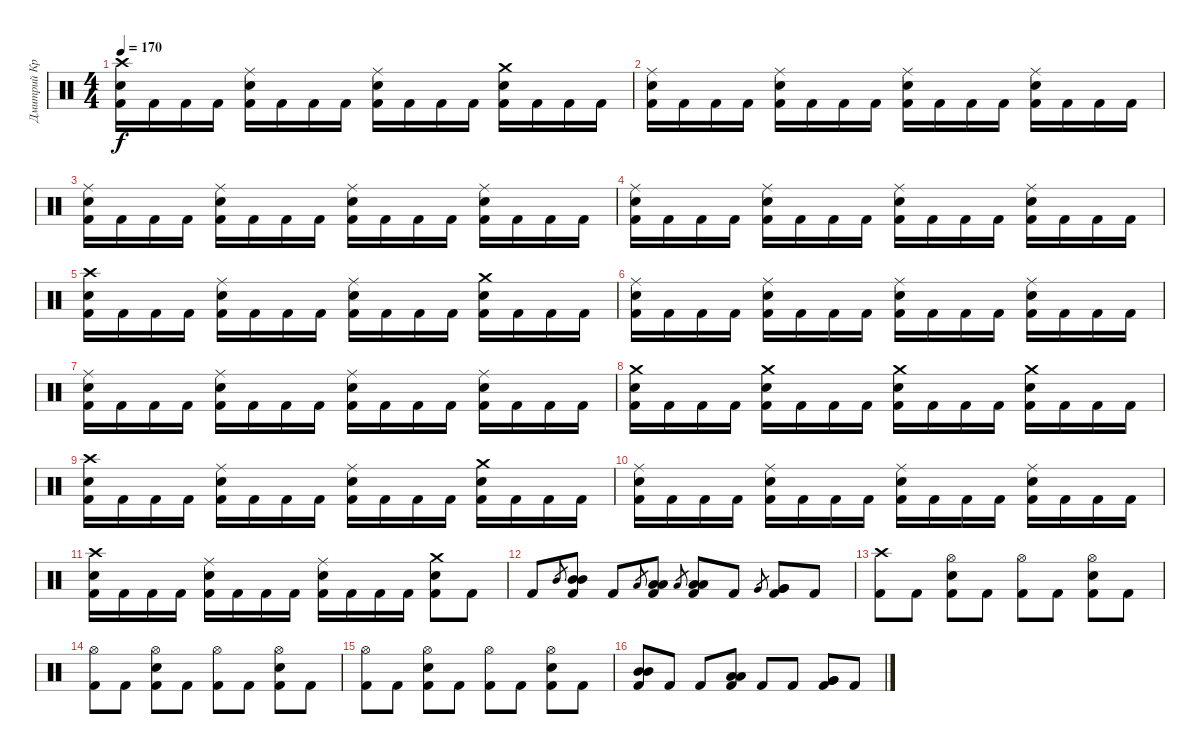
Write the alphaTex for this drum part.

\track ("Дмитрий Кривенков" "Дмитрий Кр") {instrument percussion}
\staff {score}
\articulation defaults
\ts (4 4)
\tempo 170
\clef neutral
\ks c
("Crash high (hit)" "Electric Snare (hit)" "Kick (hit) 2").16{dy f} "Kick (hit) 2".16 "Kick (hit) 2".16 "Kick (hit) 2".16 ("Ride (middle)" "Electric Snare (hit)" "Kick (hit) 2").16 "Kick (hit) 2".16 "Kick (hit) 2".16 "Kick (hit) 2".16 ("Ride (middle)" "Electric Snare (hit)" "Kick (hit) 2").16 "Kick (hit) 2".16 "Kick (hit) 2".16 "Kick (hit) 2".16 ("Crash medium (hit)" "Electric Snare (hit)" "Kick (hit) 2").16 "Kick (hit) 2".16 "Kick (hit) 2".16 "Kick (hit) 2".16 |
("Ride (middle)" "Electric Snare (hit)" "Kick (hit) 2").16 "Kick (hit) 2".16 "Kick (hit) 2".16 "Kick (hit) 2".16 ("Ride (middle)" "Electric Snare (hit)" "Kick (hit) 2").16 "Kick (hit) 2".16 "Kick (hit) 2".16 "Kick (hit) 2".16 ("Ride (middle)" "Electric Snare (hit)" "Kick (hit) 2").16 "Kick (hit) 2".16 "Kick (hit) 2".16 "Kick (hit) 2".16 ("Ride (middle)" "Electric Snare (hit)" "Kick (hit) 2").16 "Kick (hit) 2".16 "Kick (hit) 2".16 "Kick (hit) 2".16 |
("Ride (middle)" "Electric Snare (hit)" "Kick (hit) 2").16 "Kick (hit) 2".16 "Kick (hit) 2".16 "Kick (hit) 2".16 ("Ride (middle)" "Electric Snare (hit)" "Kick (hit) 2").16 "Kick (hit) 2".16 "Kick (hit) 2".16 "Kick (hit) 2".16 ("Ride (middle)" "Electric Snare (hit)" "Kick (hit) 2").16 "Kick (hit) 2".16 "Kick (hit) 2".16 "Kick (hit) 2".16 ("Ride (middle)" "Electric Snare (hit)" "Kick (hit) 2").16 "Kick (hit) 2".16 "Kick (hit) 2".16 "Kick (hit) 2".16 |
("Ride (middle)" "Electric Snare (hit)" "Kick (hit) 2").16 "Kick (hit) 2".16 "Kick (hit) 2".16 "Kick (hit) 2".16 ("Ride (middle)" "Electric Snare (hit)" "Kick (hit) 2").16 "Kick (hit) 2".16 "Kick (hit) 2".16 "Kick (hit) 2".16 ("Ride (middle)" "Electric Snare (hit)" "Kick (hit) 2").16 "Kick (hit) 2".16 "Kick (hit) 2".16 "Kick (hit) 2".16 ("Ride (middle)" "Electric Snare (hit)" "Kick (hit) 2").16 "Kick (hit) 2".16 "Kick (hit) 2".16 "Kick (hit) 2".16 |
("Crash high (hit)" "Electric Snare (hit)" "Kick (hit) 2").16 "Kick (hit) 2".16 "Kick (hit) 2".16 "Kick (hit) 2".16 ("Ride (middle)" "Electric Snare (hit)" "Kick (hit) 2").16 "Kick (hit) 2".16 "Kick (hit) 2".16 "Kick (hit) 2".16 ("Ride (middle)" "Electric Snare (hit)" "Kick (hit) 2").16 "Kick (hit) 2".16 "Kick (hit) 2".16 "Kick (hit) 2".16 ("Crash medium (hit)" "Electric Snare (hit)" "Kick (hit) 2").16 "Kick (hit) 2".16 "Kick (hit) 2".16 "Kick (hit) 2".16 |
("Ride (middle)" "Electric Snare (hit)" "Kick (hit) 2").16 "Kick (hit) 2".16 "Kick (hit) 2".16 "Kick (hit) 2".16 ("Ride (middle)" "Electric Snare (hit)" "Kick (hit) 2").16 "Kick (hit) 2".16 "Kick (hit) 2".16 "Kick (hit) 2".16 ("Ride (middle)" "Electric Snare (hit)" "Kick (hit) 2").16 "Kick (hit) 2".16 "Kick (hit) 2".16 "Kick (hit) 2".16 ("Ride (middle)" "Electric Snare (hit)" "Kick (hit) 2").16 "Kick (hit) 2".16 "Kick (hit) 2".16 "Kick (hit) 2".16 |
("Ride (middle)" "Electric Snare (hit)" "Kick (hit) 2").16 "Kick (hit) 2".16 "Kick (hit) 2".16 "Kick (hit) 2".16 ("Ride (middle)" "Electric Snare (hit)" "Kick (hit) 2").16 "Kick (hit) 2".16 "Kick (hit) 2".16 "Kick (hit) 2".16 ("Ride (middle)" "Electric Snare (hit)" "Kick (hit) 2").16 "Kick (hit) 2".16 "Kick (hit) 2".16 "Kick (hit) 2".16 ("Ride (middle)" "Electric Snare (hit)" "Kick (hit) 2").16 "Kick (hit) 2".16 "Kick (hit) 2".16 "Kick (hit) 2".16 |
("Crash medium (hit)" "Electric Snare (hit)" "Kick (hit) 2").16 "Kick (hit) 2".16 "Kick (hit) 2".16 "Kick (hit) 2".16 ("Crash medium (hit)" "Electric Snare (hit)" "Kick (hit) 2").16 "Kick (hit) 2".16 "Kick (hit) 2".16 "Kick (hit) 2".16 ("Crash medium (hit)" "Electric Snare (hit)" "Kick (hit) 2").16 "Kick (hit) 2".16 "Kick (hit) 2".16 "Kick (hit) 2".16 ("Crash medium (hit)" "Electric Snare (hit)" "Kick (hit) 2").16 "Kick (hit) 2".16 "Kick (hit) 2".16 "Kick (hit) 2".16 |
("Crash high (hit)" "Electric Snare (hit)" "Kick (hit) 2").16 "Kick (hit) 2".16 "Kick (hit) 2".16 "Kick (hit) 2".16 ("Ride (middle)" "Electric Snare (hit)" "Kick (hit) 2").16 "Kick (hit) 2".16 "Kick (hit) 2".16 "Kick (hit) 2".16 ("Ride (middle)" "Electric Snare (hit)" "Kick (hit) 2").16 "Kick (hit) 2".16 "Kick (hit) 2".16 "Kick (hit) 2".16 ("Crash medium (hit)" "Electric Snare (hit)" "Kick (hit) 2").16 "Kick (hit) 2".16 "Kick (hit) 2".16 "Kick (hit) 2".16 |
("Ride (middle)" "Electric Snare (hit)" "Kick (hit) 2").16 "Kick (hit) 2".16 "Kick (hit) 2".16 "Kick (hit) 2".16 ("Ride (middle)" "Electric Snare (hit)" "Kick (hit) 2").16 "Kick (hit) 2".16 "Kick (hit) 2".16 "Kick (hit) 2".16 ("Ride (middle)" "Electric Snare (hit)" "Kick (hit) 2").16 "Kick (hit) 2".16 "Kick (hit) 2".16 "Kick (hit) 2".16 ("Ride (middle)" "Electric Snare (hit)" "Kick (hit) 2").16 "Kick (hit) 2".16 "Kick (hit) 2".16 "Kick (hit) 2".16 |
("Crash high (hit)" "Electric Snare (hit)" "Kick (hit) 2").16 "Kick (hit) 2".16 "Kick (hit) 2".16 "Kick (hit) 2".16 ("Ride (middle)" "Electric Snare (hit)" "Kick (hit) 2").16 "Kick (hit) 2".16 "Kick (hit) 2".16 "Kick (hit) 2".16 ("Ride (middle)" "Electric Snare (hit)" "Kick (hit) 2").16 "Kick (hit) 2".16 "Kick (hit) 2".16 "Kick (hit) 2".16 ("Crash medium (hit)" "Electric Snare (hit)" "Kick (hit) 2").8 "Kick (hit) 2".8 |
"Kick (hit) 2".8 "Mid Tom (hit)".8{gr} ("Mid Tom (hit)" "Mid Tom (hit)" "Kick (hit) 2").8 "Kick (hit) 2".8 "Low Tom (hit)".8{gr} ("Low Tom (hit)" "Low Tom (hit)" "Kick (hit) 2").8 "Low Tom (hit)".8{gr} ("Low Tom (hit)" "Low Tom (hit)" "Kick (hit) 2").8 "Kick (hit) 2".8 "Very Low Tom (hit)".8{gr} ("Very Low Tom (hit)" "Very Low Tom (hit)" "Kick (hit) 2").8 "Kick (hit) 2".8 |
("Crash high (hit)" "Kick (hit) 2").8 "Kick (hit) 2".8 ("Hi-Hat (open)" "Electric Snare (hit)" "Kick (hit) 2").8 "Kick (hit) 2".8 ("Hi-Hat (open)" "Kick (hit) 2").8 "Kick (hit) 2".8 ("Hi-Hat (open)" "Electric Snare (hit)" "Kick (hit) 2").8 "Kick (hit) 2".8 |
("Hi-Hat (open)" "Kick (hit) 2").8 "Kick (hit) 2".8 ("Hi-Hat (open)" "Electric Snare (hit)" "Kick (hit) 2").8 "Kick (hit) 2".8 ("Hi-Hat (open)" "Kick (hit) 2").8 "Kick (hit) 2".8 ("Hi-Hat (open)" "Electric Snare (hit)" "Kick (hit) 2").8 "Kick (hit) 2".8 |
("Hi-Hat (open)" "Kick (hit) 2").8 "Kick (hit) 2".8 ("Hi-Hat (open)" "Electric Snare (hit)" "Kick (hit) 2").8 "Kick (hit) 2".8 ("Hi-Hat (open)" "Kick (hit) 2").8 "Kick (hit) 2".8 ("Hi-Hat (open)" "Electric Snare (hit)" "Kick (hit) 2").8 "Kick (hit) 2".8 |
("Mid Tom (hit)" "Mid Tom (hit)" "Kick (hit) 2").8 "Kick (hit) 2".8 "Kick (hit) 2".8 ("Low Tom (hit)" "Low Tom (hit)" "Kick (hit) 2").8 "Kick (hit) 2".8 "Kick (hit) 2".8 ("Very Low Tom (hit)" "Very Low Tom (hit)" "Kick (hit) 2").8 "Kick (hit) 2".8
